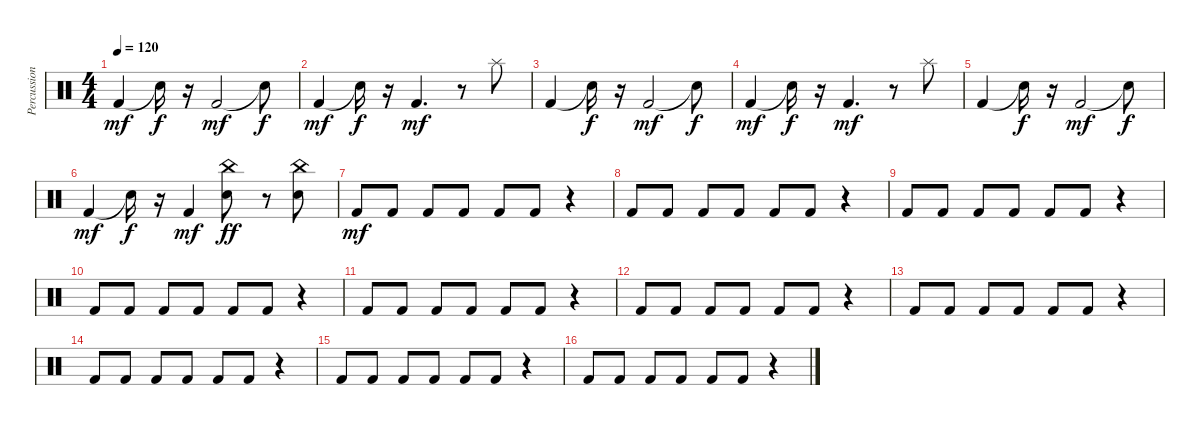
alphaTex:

\track ("Percussions" "Percussion") {instrument percussion}
\staff {score}
\articulation defaults
\ts (4 4)
\tempo 120
\clef neutral
\ks c "Kick (hit) 2".4{dy mf} "Snare (hit)"{t}.16{dy f}
r.16 "Kick (hit) 2".2{dy mf} "Snare (hit)"{t}.8{dy f} |
"Kick (hit) 2".4{dy mf} "Snare (hit)"{t}.16{dy f} r.16 "Kick (hit) 2".4{d dy mf} r.8 "Splash (hit)".8 |
"Kick (hit) 2".4 "Snare (hit)"{t}.16{dy f} r.16 "Kick (hit) 2".2{dy mf} "Snare (hit)"{t}.8{dy f} |
"Kick (hit) 2".4{dy mf} "Snare (hit)"{t}.16{dy f} r.16 "Kick (hit) 2".4{d dy mf} r.8 "Splash (hit)".8 |
"Kick (hit) 2".4 "Snare (hit)"{t}.16{dy f} r.16 "Kick (hit) 2".2{dy mf} "Snare (hit)"{t}.8{dy f} |
"Kick (hit) 2".4{dy mf} "Snare (hit)"{t}.16{dy f} r.16 "Kick (hit) 2".4{dy mf} ("Electric Snare (hit)" "China (hit)").8{dy ff} r.8 ("Electric Snare (hit)" "China (hit)").8 |
"Kick (hit) 2".8{dy mf} "Kick (hit) 2".8 "Kick (hit) 2".8 "Kick (hit) 2".8 "Kick (hit) 2".8 "Kick (hit) 2".8 r.4 |
"Kick (hit) 2".8 "Kick (hit) 2".8 "Kick (hit) 2".8 "Kick (hit) 2".8 "Kick (hit) 2".8 "Kick (hit) 2".8 r.4 |
"Kick (hit) 2".8 "Kick (hit) 2".8 "Kick (hit) 2".8 "Kick (hit) 2".8 "Kick (hit) 2".8 "Kick (hit) 2".8 r.4 |
"Kick (hit) 2".8 "Kick (hit) 2".8 "Kick (hit) 2".8 "Kick (hit) 2".8 "Kick (hit) 2".8 "Kick (hit) 2".8 r.4 |
"Kick (hit) 2".8 "Kick (hit) 2".8 "Kick (hit) 2".8 "Kick (hit) 2".8 "Kick (hit) 2".8 "Kick (hit) 2".8 r.4 |
"Kick (hit) 2".8 "Kick (hit) 2".8 "Kick (hit) 2".8 "Kick (hit) 2".8 "Kick (hit) 2".8 "Kick (hit) 2".8 r.4 |
"Kick (hit) 2".8 "Kick (hit) 2".8 "Kick (hit) 2".8 "Kick (hit) 2".8 "Kick (hit) 2".8 "Kick (hit) 2".8 r.4 |
"Kick (hit) 2".8 "Kick (hit) 2".8 "Kick (hit) 2".8 "Kick (hit) 2".8 "Kick (hit) 2".8 "Kick (hit) 2".8 r.4 |
"Kick (hit) 2".8 "Kick (hit) 2".8 "Kick (hit) 2".8 "Kick (hit) 2".8 "Kick (hit) 2".8 "Kick (hit) 2".8 r.4 |
"Kick (hit) 2".8 "Kick (hit) 2".8 "Kick (hit) 2".8 "Kick (hit) 2".8 "Kick (hit) 2".8 "Kick (hit) 2".8 r.4
